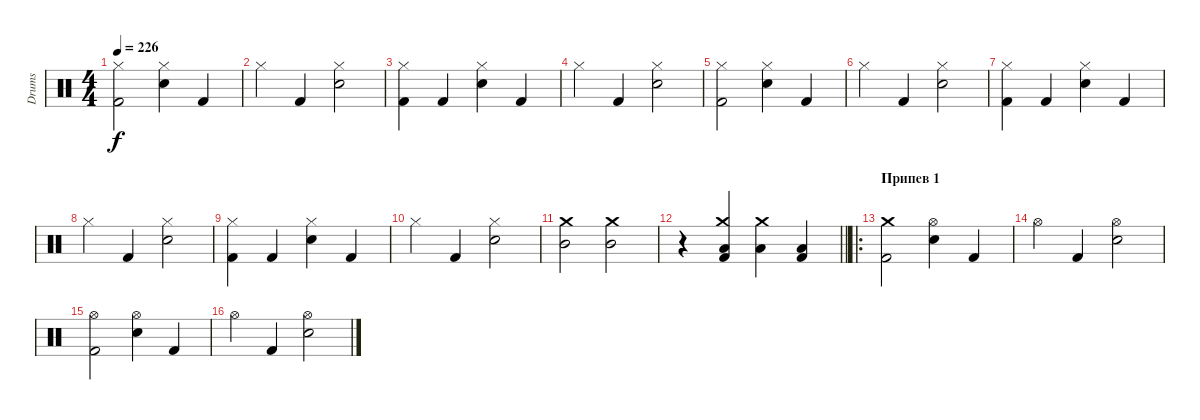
\track ("Drums" "Drums") {instrument percussion}
\staff
\articulation defaults
\ts (4 4)
\tempo 226
\clef neutral
\ks c
("Hi-Hat (closed)" "Kick (hit) 2").2{dy f} ("Hi-Hat (closed)" "Snare (hit) 2").4 "Kick (hit) 2".4 |
"Hi-Hat (closed)".4 "Kick (hit) 2".4 ("Hi-Hat (closed)" "Snare (hit) 2").2 |
("Hi-Hat (closed)" "Kick (hit) 2").4 "Kick (hit) 2".4 ("Hi-Hat (closed)" "Snare (hit) 2").4 "Kick (hit) 2".4 |
"Hi-Hat (closed)".4 "Kick (hit) 2".4 ("Hi-Hat (closed)" "Snare (hit) 2").2 |
("Hi-Hat (closed)" "Kick (hit) 2").2 ("Hi-Hat (closed)" "Snare (hit) 2").4 "Kick (hit) 2".4 |
"Hi-Hat (closed)".4 "Kick (hit) 2".4 ("Hi-Hat (closed)" "Snare (hit) 2").2 |
("Hi-Hat (closed)" "Kick (hit) 2").4 "Kick (hit) 2".4 ("Hi-Hat (closed)" "Snare (hit) 2").4 "Kick (hit) 2".4 |
"Hi-Hat (closed)".4 "Kick (hit) 2".4 ("Hi-Hat (closed)" "Snare (hit) 2").2 |
("Hi-Hat (closed)" "Kick (hit) 2").4 "Kick (hit) 2".4 ("Hi-Hat (closed)" "Snare (hit) 2").4 "Kick (hit) 2".4 |
"Hi-Hat (closed)".4 "Kick (hit) 2".4 ("Hi-Hat (closed)" "Snare (hit) 2").2 |
("Crash medium (hit)" "Mid Tom (hit)").2 ("Crash medium (hit)" "Mid Tom (hit)").2 |
\barLineRight lightlight
r.4 ("Crash medium (hit)" "Low Tom (hit)" "Kick (hit) 2").4 ("Crash medium (hit)" "Low Tom (hit)").4 ("Low Tom (hit)" "Kick (hit) 2").4 |
\ro
\section ("" "Припев 1")
("Crash medium (hit)" "Kick (hit) 2").2 ("Hi-Hat (open)" "Snare (hit) 2").4 "Kick (hit) 2".4 |
"Hi-Hat (open)".4 "Kick (hit) 2".4 ("Hi-Hat (open)" "Snare (hit) 2").2 |
("Hi-Hat (open)" "Kick (hit) 2").2 ("Hi-Hat (open)" "Snare (hit) 2").4 "Kick (hit) 2".4 |
"Hi-Hat (open)".4 "Kick (hit) 2".4 ("Hi-Hat (open)" "Snare (hit) 2").2
